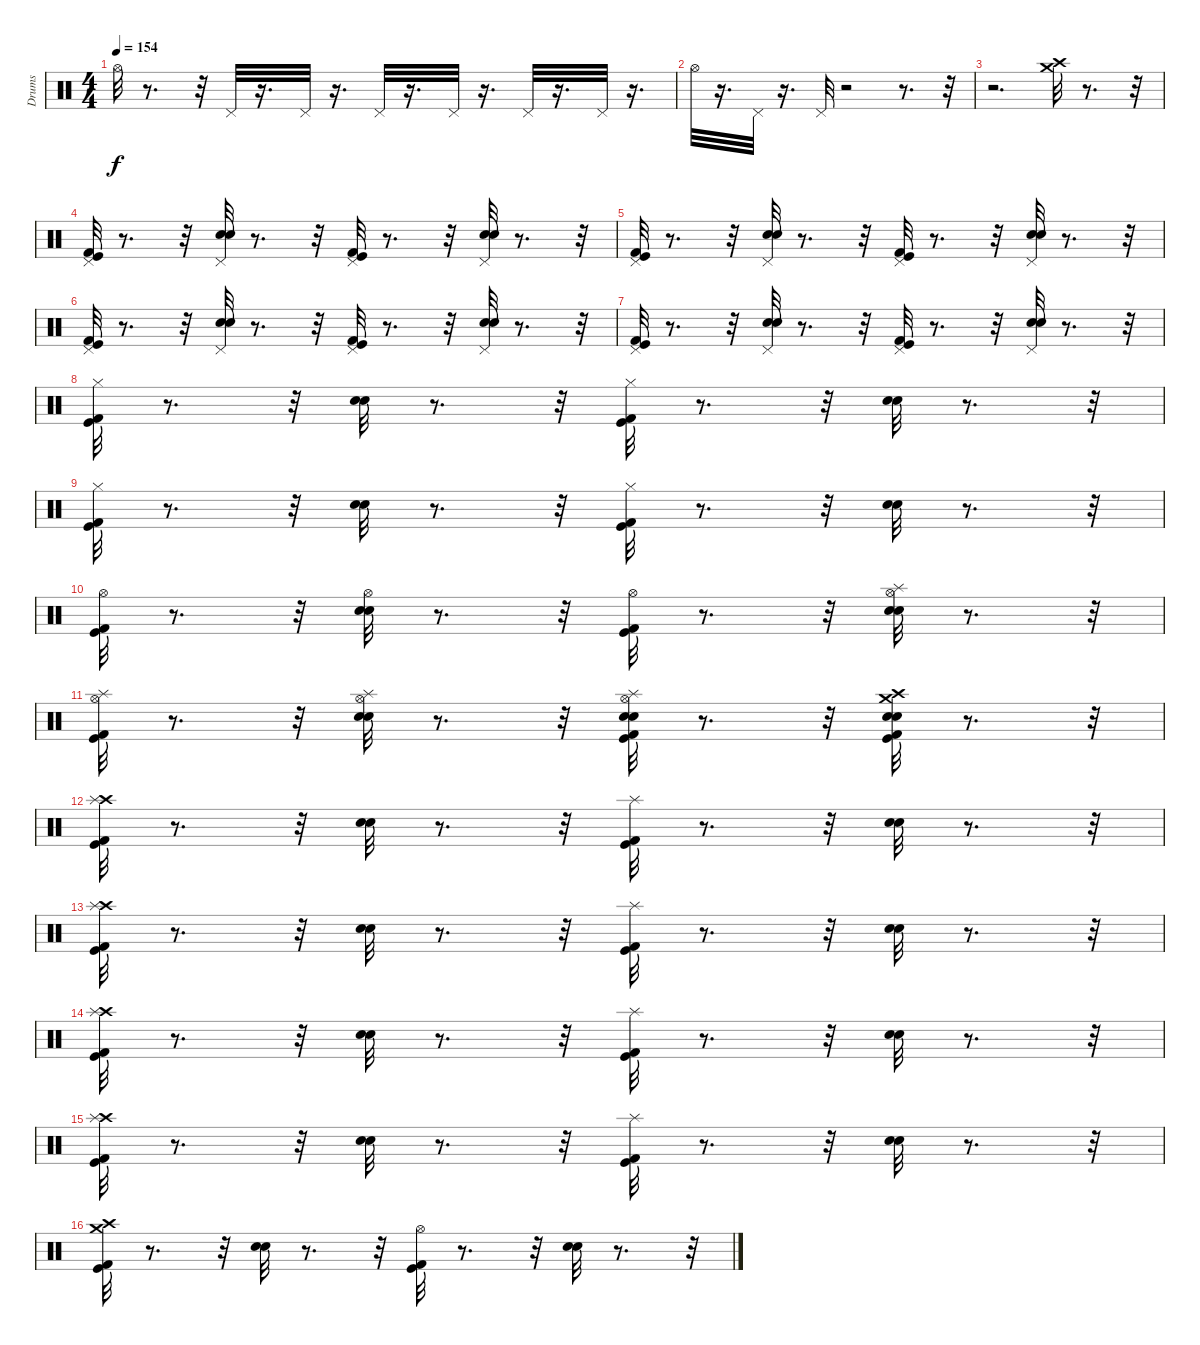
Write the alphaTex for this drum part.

\track ("Drums" "Drums") {instrument percussion}
\staff {score}
\articulation defaults
\ts (4 4)
\tempo 154
\clef neutral
\ks c "Hi-Hat (open)".32{dy f}
r.8{d} r.32 "Pedal Hi-Hat (hit)".32 r.16{d} "Pedal Hi-Hat (hit)".32 r.16{d} "Pedal Hi-Hat (hit)".32 r.16{d} "Pedal Hi-Hat (hit)".32 r.16{d} "Pedal Hi-Hat (hit)".32 r.16{d} "Pedal Hi-Hat (hit)".32 r.16{d} |
"Hi-Hat (open)".32 r.16{d} "Pedal Hi-Hat (hit)".32 r.16{d} "Pedal Hi-Hat (hit)".32 r.2 r.8{d} r.32 |
r.2{d} ("Crash high (hit)" "Crash medium (hit)").32 r.8{d} r.32 |
("Pedal Hi-Hat (hit)" "Kick (hit) 2" "Kick (hit)").32 r.8{d} r.32 ("Electric Snare (hit)" "Snare (hit) 2" "Pedal Hi-Hat (hit)").32 r.8{d} r.32 ("Pedal Hi-Hat (hit)" "Kick (hit)" "Kick (hit) 2").32 r.8{d} r.32 ("Snare (hit) 2" "Electric Snare (hit)" "Pedal Hi-Hat (hit)").32 r.8{d} r.32 |
("Pedal Hi-Hat (hit)" "Kick (hit)" "Kick (hit) 2").32 r.8{d} r.32 ("Electric Snare (hit)" "Snare (hit) 2" "Pedal Hi-Hat (hit)").32 r.8{d} r.32 ("Kick (hit)" "Kick (hit) 2" "Pedal Hi-Hat (hit)").32 r.8{d} r.32 ("Snare (hit) 2" "Electric Snare (hit)" "Pedal Hi-Hat (hit)").32 r.8{d} r.32 |
("Pedal Hi-Hat (hit)" "Kick (hit) 2" "Kick (hit)").32 r.8{d} r.32 ("Electric Snare (hit)" "Snare (hit) 2" "Pedal Hi-Hat (hit)").32 r.8{d} r.32 ("Pedal Hi-Hat (hit)" "Kick (hit)" "Kick (hit) 2").32 r.8{d} r.32 ("Snare (hit) 2" "Electric Snare (hit)" "Pedal Hi-Hat (hit)").32 r.8{d} r.32 |
("Pedal Hi-Hat (hit)" "Kick (hit)" "Kick (hit) 2").32 r.8{d} r.32 ("Electric Snare (hit)" "Snare (hit) 2" "Pedal Hi-Hat (hit)").32 r.8{d} r.32 ("Kick (hit)" "Kick (hit) 2" "Pedal Hi-Hat (hit)").32 r.8{d} r.32 ("Snare (hit) 2" "Electric Snare (hit)" "Pedal Hi-Hat (hit)").32 r.8{d} r.32 |
("Hi-Hat (closed)" "Kick (hit) 2" "Kick (hit)").32 r.8{d} r.32 ("Electric Snare (hit)" "Snare (hit) 2").32 r.8{d} r.32 ("Hi-Hat (closed)" "Kick (hit)" "Kick (hit) 2").32 r.8{d} r.32 ("Snare (hit) 2" "Electric Snare (hit)").32 r.8{d} r.32 |
("Hi-Hat (closed)" "Kick (hit)" "Kick (hit) 2").32 r.8{d} r.32 ("Electric Snare (hit)" "Snare (hit) 2").32 r.8{d} r.32 ("Hi-Hat (closed)" "Kick (hit)" "Kick (hit) 2").32 r.8{d} r.32 ("Snare (hit) 2" "Electric Snare (hit)").32 r.8{d} r.32 |
("Hi-Hat (open)" "Kick (hit) 2" "Kick (hit)").32 r.8{d} r.32 ("Hi-Hat (open)" "Electric Snare (hit)" "Snare (hit) 2").32 r.8{d} r.32 ("Hi-Hat (open)" "Kick (hit)" "Kick (hit) 2").32 r.8{d} r.32 ("Splash (hit)" "Hi-Hat (open)" "Snare (hit) 2" "Electric Snare (hit)").32 r.8{d} r.32 |
("Splash (hit)" "Hi-Hat (open)" "Kick (hit)" "Kick (hit) 2").32 r.8{d} r.32 ("Splash (hit)" "Hi-Hat (open)" "Electric Snare (hit)" "Snare (hit) 2").32 r.8{d} r.32 ("Splash (hit)" "Snare (hit) 2" "Electric Snare (hit)" "Hi-Hat (open)" "Kick (hit)" "Kick (hit) 2").32 r.8{d} r.32 ("Kick (hit)" "Kick (hit) 2" "Crash high (hit)" "Crash medium (hit)" "Snare (hit) 2" "Electric Snare (hit)").32 r.8{d} r.32 |
("Crash high (hit)" "Splash (hit)" "Kick (hit) 2" "Kick (hit)").32 r.8{d} r.32 ("Electric Snare (hit)" "Snare (hit) 2").32 r.8{d} r.32 ("Splash (hit)" "Kick (hit)" "Kick (hit) 2").32 r.8{d} r.32 ("Snare (hit) 2" "Electric Snare (hit)").32 r.8{d} r.32 |
("Crash high (hit)" "Splash (hit)" "Kick (hit) 2" "Kick (hit)").32 r.8{d} r.32 ("Electric Snare (hit)" "Snare (hit) 2").32 r.8{d} r.32 ("Splash (hit)" "Kick (hit)" "Kick (hit) 2").32 r.8{d} r.32 ("Snare (hit) 2" "Electric Snare (hit)").32 r.8{d} r.32 |
("Crash high (hit)" "Splash (hit)" "Kick (hit) 2" "Kick (hit)").32 r.8{d} r.32 ("Electric Snare (hit)" "Snare (hit) 2").32 r.8{d} r.32 ("Splash (hit)" "Kick (hit)" "Kick (hit) 2").32 r.8{d} r.32 ("Snare (hit) 2" "Electric Snare (hit)").32 r.8{d} r.32 |
("Crash high (hit)" "Splash (hit)" "Kick (hit) 2" "Kick (hit)").32 r.8{d} r.32 ("Electric Snare (hit)" "Snare (hit) 2").32 r.8{d} r.32 ("Splash (hit)" "Kick (hit)" "Kick (hit) 2").32 r.8{d} r.32 ("Snare (hit) 2" "Electric Snare (hit)").32 r.8{d} r.32 |
("Kick (hit) 2" "Kick (hit)" "Crash high (hit)" "Crash medium (hit)").32 r.8{d} r.32 ("Snare (hit) 2" "Electric Snare (hit)").32 r.8{d} r.32 ("Hi-Hat (open)" "Kick (hit)" "Kick (hit) 2").32 r.8{d} r.32 ("Snare (hit) 2" "Electric Snare (hit)").32 r.8{d} r.32
